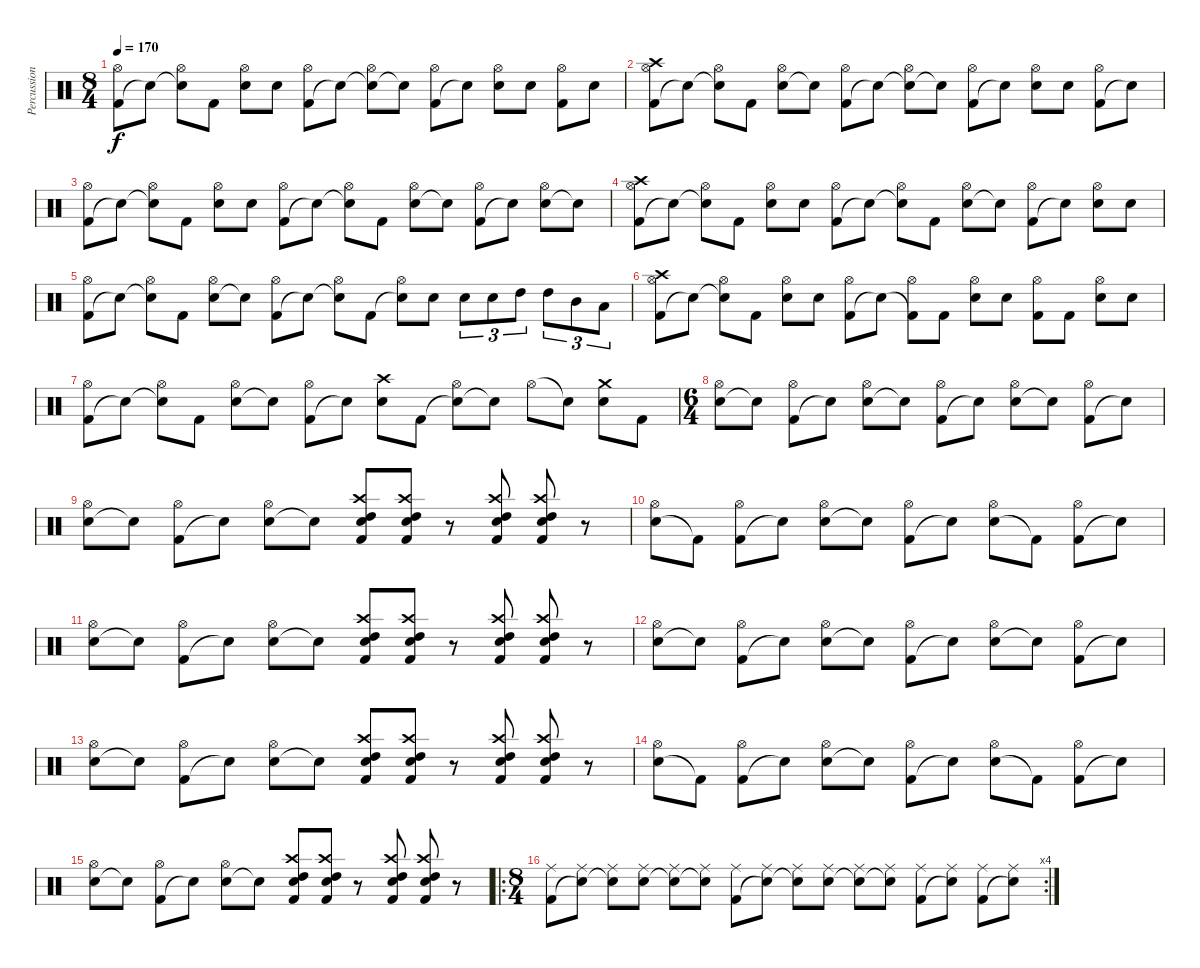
\track ("Percussion" "Percussion") {instrument percussion}
\staff {score}
\articulation defaults
\ts (8 4)
\tempo 170
\clef neutral
\ks c
("Kick (hit) 2" "Hi-Hat (open)").8{dy f} "Snare (hit)"{t}.8 ("Snare (hit)"{t} "Hi-Hat (open)").8 "Kick (hit) 2".8 ("Electric Snare (hit)" "Hi-Hat (open)").8 "Electric Snare (hit)".8 ("Kick (hit) 2" "Hi-Hat (open)").8 "Snare (hit)"{t}.8 ("Snare (hit)"{t} "Hi-Hat (open)").8 "Snare (hit)"{t}.8 ("Kick (hit) 2" "Hi-Hat (open)").8 "Snare (hit)"{t}.8 ("Electric Snare (hit)" "Hi-Hat (open)").8 "Electric Snare (hit)".8 ("Kick (hit) 2" "Hi-Hat (open)").8 "Electric Snare (hit)".8 |
("Kick (hit) 2" "Hi-Hat (open)" "Crash high (hit)").8 "Snare (hit)"{t}.8 ("Snare (hit)"{t} "Hi-Hat (open)").8 "Kick (hit) 2".8 ("Electric Snare (hit)" "Hi-Hat (open)").8 "Snare (hit)"{t}.8 ("Kick (hit) 2" "Hi-Hat (open)").8 "Snare (hit)"{t}.8 ("Snare (hit)"{t} "Hi-Hat (open)").8 "Snare (hit)"{t}.8 ("Kick (hit) 2" "Hi-Hat (open)").8 "Snare (hit)"{t}.8 ("Electric Snare (hit)" "Hi-Hat (open)").8 "Electric Snare (hit)".8 ("Kick (hit) 2" "Hi-Hat (open)").8 "Snare (hit)"{t}.8 |
("Kick (hit) 2" "Hi-Hat (open)").8 "Snare (hit)"{t}.8 ("Snare (hit)"{t} "Hi-Hat (open)").8 "Kick (hit) 2".8 ("Electric Snare (hit)" "Hi-Hat (open)").8 "Electric Snare (hit)".8 ("Kick (hit) 2" "Hi-Hat (open)").8 "Snare (hit)"{t}.8 ("Snare (hit)"{t} "Hi-Hat (open)").8 "Kick (hit) 2".8 ("Electric Snare (hit)" "Hi-Hat (open)").8 "Snare (hit)"{t}.8 ("Kick (hit) 2" "Hi-Hat (open)").8 "Snare (hit)"{t}.8 ("Electric Snare (hit)" "Hi-Hat (open)").8 "Snare (hit)"{t}.8 |
("Kick (hit) 2" "Hi-Hat (open)" "Crash high (hit)").8 "Snare (hit)"{t}.8 ("Snare (hit)"{t} "Hi-Hat (open)").8 "Kick (hit) 2".8 ("Electric Snare (hit)" "Hi-Hat (open)").8 "Electric Snare (hit)".8 ("Kick (hit) 2" "Hi-Hat (open)").8 "Snare (hit)"{t}.8 ("Snare (hit)"{t} "Hi-Hat (open)").8 "Kick (hit) 2".8 ("Electric Snare (hit)" "Hi-Hat (open)").8 "Snare (hit)"{t}.8 ("Kick (hit) 2" "Hi-Hat (open)").8 "Snare (hit)"{t}.8 ("Electric Snare (hit)" "Hi-Hat (open)").8 "Electric Snare (hit)".8 |
("Kick (hit) 2" "Hi-Hat (open)").8 "Snare (hit)"{t}.8 ("Snare (hit)"{t} "Hi-Hat (open)").8 "Kick (hit) 2".8 ("Electric Snare (hit)" "Hi-Hat (open)").8 "Snare (hit)"{t}.8 ("Kick (hit) 2" "Hi-Hat (open)").8 "Snare (hit)"{t}.8 ("Snare (hit)"{t} "Hi-Hat (open)").8 "Kick (hit) 2".8 ("Electric Snare (hit)"{t} "Hi-Hat (open)").8 "Electric Snare (hit)".8 "Electric Snare (hit)".8{tu (3 2)} "Electric Snare (hit)".8{tu (3 2)} "High Tom (hit)".8{tu (3 2)} "High Tom (hit)".8{tu (3 2)} "Mid Tom (hit)".8{tu (3 2)} "Low Tom (hit)".8{tu (3 2)} |
("Kick (hit) 2" "Hi-Hat (open)" "Crash high (hit)").8 "Snare (hit)"{t}.8 ("Snare (hit)"{t} "Hi-Hat (open)").8 "Kick (hit) 2".8 ("Electric Snare (hit)" "Hi-Hat (open)").8 "Electric Snare (hit)".8 ("Kick (hit) 2" "Hi-Hat (open)").8 "Electric Snare (hit)"{t}.8 ("Kick (hit) 2"{t} "Hi-Hat (open)").8 "Kick (hit) 2".8 ("Electric Snare (hit)" "Hi-Hat (open)").8 "Electric Snare (hit)".8 ("Kick (hit) 2" "Hi-Hat (open)").8 "Kick (hit) 2".8 ("Electric Snare (hit)" "Hi-Hat (open)").8 "Electric Snare (hit)".8 |
("Kick (hit) 2" "Hi-Hat (open)").8 "Snare (hit)"{t}.8 ("Snare (hit)"{t} "Hi-Hat (open)").8 "Kick (hit) 2".8 ("Electric Snare (hit)" "Hi-Hat (open)").8 "Snare (hit)"{t}.8 ("Kick (hit) 2" "Hi-Hat (open)").8 "Snare (hit)"{t}.8 ("Electric Snare (hit)" "Crash high (hit)").8 "Kick (hit) 2".8 ("Snare (hit)"{t} "Hi-Hat (open)").8 "Electric Snare (hit)"{t}.8 "Hi-Hat (open)".8 "Snare (hit)"{t}.8 ("Electric Snare (hit)" "Crash medium (hit)").8 "Kick (hit) 2".8 |
\ts (6 4)
("Electric Snare (hit)" "Hi-Hat (open)").8 "Snare (hit)"{t}.8 ("Kick (hit) 2" "Hi-Hat (open)").8 "Snare (hit)"{t}.8 ("Electric Snare (hit)" "Hi-Hat (open)").8 "Snare (hit)"{t}.8 ("Kick (hit) 2" "Hi-Hat (open)").8 "Snare (hit)"{t}.8 ("Electric Snare (hit)" "Hi-Hat (open)").8 "Snare (hit)"{t}.8 ("Kick (hit) 2" "Hi-Hat (open)").8 "Snare (hit)"{t}.8 |
("Electric Snare (hit)" "Hi-Hat (open)").8 "Snare (hit)"{t}.8 ("Kick (hit) 2" "Hi-Hat (open)").8 "Snare (hit)"{t}.8 ("Electric Snare (hit)" "Hi-Hat (open)").8 "Snare (hit)"{t}.8 ("Electric Snare (hit)" "Kick (hit) 2" "High Tom (hit)" "Crash high (hit)").8 ("Electric Snare (hit)" "Kick (hit) 2" "High Tom (hit)" "Crash high (hit)").8 r.8 ("Electric Snare (hit)" "Kick (hit) 2" "High Tom (hit)" "Crash high (hit)").8 ("Electric Snare (hit)" "Kick (hit) 2" "High Tom (hit)" "Crash high (hit)").8 r.8 |
("Electric Snare (hit)" "Hi-Hat (open)").8 "Kick (hit) 2"{t}.8 ("Kick (hit) 2" "Hi-Hat (open)").8 "Snare (hit)"{t}.8 ("Electric Snare (hit)" "Hi-Hat (open)").8 "Snare (hit)"{t}.8 ("Kick (hit) 2" "Hi-Hat (open)").8 "Snare (hit)"{t}.8 ("Electric Snare (hit)" "Hi-Hat (open)").8 "Kick (hit) 2"{t}.8 ("Kick (hit) 2" "Hi-Hat (open)").8 "Electric Snare (hit)"{t}.8 |
("Electric Snare (hit)" "Hi-Hat (open)").8 "Snare (hit)"{t}.8 ("Kick (hit) 2" "Hi-Hat (open)").8 "Snare (hit)"{t}.8 ("Electric Snare (hit)" "Hi-Hat (open)").8 "Snare (hit)"{t}.8 ("Electric Snare (hit)" "Kick (hit) 2" "High Tom (hit)" "Crash high (hit)").8 ("Electric Snare (hit)" "Kick (hit) 2" "High Tom (hit)" "Crash high (hit)").8 r.8 ("Electric Snare (hit)" "Kick (hit) 2" "High Tom (hit)" "Crash high (hit)").8 ("Electric Snare (hit)" "Kick (hit) 2" "High Tom (hit)" "Crash high (hit)").8 r.8 |
("Electric Snare (hit)" "Hi-Hat (open)").8 "Snare (hit)"{t}.8 ("Kick (hit) 2" "Hi-Hat (open)").8 "Snare (hit)"{t}.8 ("Electric Snare (hit)" "Hi-Hat (open)").8 "Snare (hit)"{t}.8 ("Kick (hit) 2" "Hi-Hat (open)").8 "Snare (hit)"{t}.8 ("Electric Snare (hit)" "Hi-Hat (open)").8 "Snare (hit)"{t}.8 ("Kick (hit) 2" "Hi-Hat (open)").8 "Snare (hit)"{t}.8 |
("Electric Snare (hit)" "Hi-Hat (open)").8 "Snare (hit)"{t}.8 ("Kick (hit) 2" "Hi-Hat (open)").8 "Snare (hit)"{t}.8 ("Electric Snare (hit)" "Hi-Hat (open)").8 "Snare (hit)"{t}.8 ("Electric Snare (hit)" "Kick (hit) 2" "High Tom (hit)" "Crash high (hit)").8 ("Electric Snare (hit)" "Kick (hit) 2" "High Tom (hit)" "Crash high (hit)").8 r.8 ("Electric Snare (hit)" "Kick (hit) 2" "High Tom (hit)" "Crash high (hit)").8 ("Electric Snare (hit)" "Kick (hit) 2" "High Tom (hit)" "Crash high (hit)").8 r.8 |
("Electric Snare (hit)" "Hi-Hat (open)").8 "Kick (hit) 2"{t}.8 ("Kick (hit) 2" "Hi-Hat (open)").8 "Snare (hit)"{t}.8 ("Electric Snare (hit)" "Hi-Hat (open)").8 "Snare (hit)"{t}.8 ("Kick (hit) 2" "Hi-Hat (open)").8 "Snare (hit)"{t}.8 ("Electric Snare (hit)" "Hi-Hat (open)").8 "Kick (hit) 2"{t}.8 ("Kick (hit) 2" "Hi-Hat (open)").8 "Electric Snare (hit)"{t}.8 |
("Electric Snare (hit)" "Hi-Hat (open)").8 "Snare (hit)"{t}.8 ("Kick (hit) 2" "Hi-Hat (open)").8 "Snare (hit)"{t}.8 ("Electric Snare (hit)" "Hi-Hat (open)").8 "Snare (hit)"{t}.8 ("Electric Snare (hit)" "Kick (hit) 2" "High Tom (hit)" "Crash high (hit)").8 ("Electric Snare (hit)" "Kick (hit) 2" "High Tom (hit)" "Crash high (hit)").8 r.8 ("Electric Snare (hit)" "Kick (hit) 2" "High Tom (hit)" "Crash high (hit)").8 ("Electric Snare (hit)" "Kick (hit) 2" "High Tom (hit)" "Crash high (hit)").8 r.8 |
\ro
\rc 4
\ts (8 4)
("Kick (hit) 2" "Ride (middle)").8 ("Snare (hit)"{t} "Ride (middle)").8 ("Snare (hit)"{t} "Ride (middle)").8 ("Electric Snare (hit)" "Ride (middle)").8 ("Snare (hit)"{t} "Ride (middle)").8 ("Snare (hit)"{t} "Ride (middle)").8 ("Kick (hit) 2" "Ride (middle)").8 ("Snare (hit)"{t} "Ride (middle)").8 ("Snare (hit)"{t} "Ride (middle)").8 ("Electric Snare (hit)" "Ride (middle)").8 ("Snare (hit)"{t} "Ride (middle)").8 ("Snare (hit)"{t} "Ride (middle)").8 ("Kick (hit) 2" "Ride (middle)").8 ("Snare (hit)"{t} "Ride (middle)").8 ("Kick (hit) 2" "Ride (middle)").8 ("Snare (hit)"{t} "Ride (middle)").8
